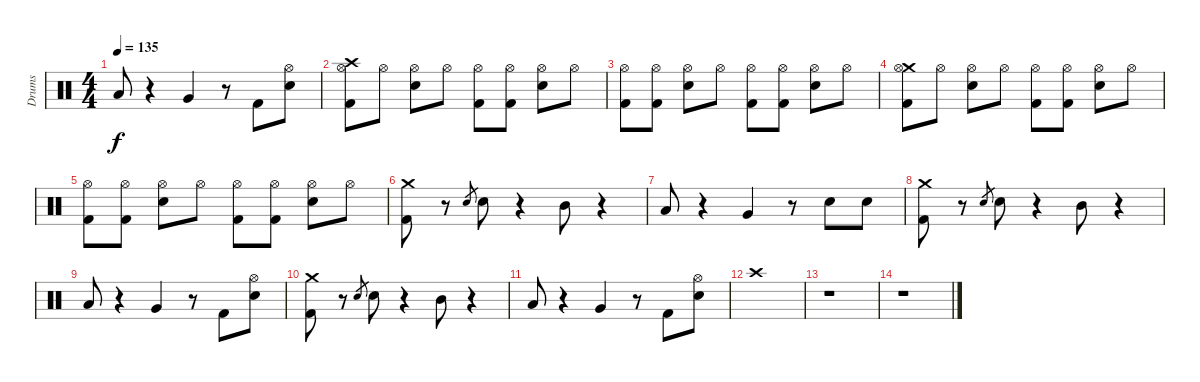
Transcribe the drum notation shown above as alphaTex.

\track ("Drums" "Drums") {instrument percussion}
\staff {score}
\articulation defaults
\ts (4 4)
\tempo 135
\clef neutral
\ks c "Low Tom (hit)".8{dy f}
r.4 "Very Low Tom (hit)".4 r.8 "Kick (hit) 2".8 ("Hi-Hat (open)" "Electric Snare (hit)").8 |
("Crash high (hit)" "Hi-Hat (open)" "Kick (hit) 2").8 "Hi-Hat (open)".8 ("Hi-Hat (open)" "Electric Snare (hit)").8 "Hi-Hat (open)".8 ("Hi-Hat (open)" "Kick (hit) 2").8 ("Hi-Hat (open)" "Kick (hit) 2").8 ("Hi-Hat (open)" "Electric Snare (hit)").8 "Hi-Hat (open)".8 |
("Hi-Hat (open)" "Kick (hit) 2").8 ("Hi-Hat (open)" "Kick (hit) 2").8 ("Hi-Hat (open)" "Electric Snare (hit)").8 "Hi-Hat (open)".8 ("Hi-Hat (open)" "Kick (hit) 2").8 ("Hi-Hat (open)" "Kick (hit) 2").8 ("Hi-Hat (open)" "Electric Snare (hit)").8 "Hi-Hat (open)".8 |
("Crash medium (hit)" "Hi-Hat (open)" "Kick (hit) 2").8 "Hi-Hat (open)".8 ("Hi-Hat (open)" "Electric Snare (hit)").8 "Hi-Hat (open)".8 ("Hi-Hat (open)" "Kick (hit) 2").8 ("Hi-Hat (open)" "Kick (hit) 2").8 ("Hi-Hat (open)" "Electric Snare (hit)").8 "Hi-Hat (open)".8 |
("Hi-Hat (open)" "Kick (hit) 2").8 ("Hi-Hat (open)" "Kick (hit) 2").8 ("Hi-Hat (open)" "Electric Snare (hit)").8 "Hi-Hat (open)".8 ("Hi-Hat (open)" "Kick (hit) 2").8 ("Hi-Hat (open)" "Kick (hit) 2").8 ("Hi-Hat (open)" "Electric Snare (hit)").8 "Hi-Hat (open)".8 |
("Crash medium (hit)" "Kick (hit) 2").8 r.8 "Electric Snare (hit)".8{gr} "Electric Snare (hit)".8 r.4 "Mid Tom (hit)".8 r.4 |
"Low Tom (hit)".8 r.4 "Very Low Tom (hit)".4 r.8 "Electric Snare (hit)".8 "Electric Snare (hit)".8 |
("Crash medium (hit)" "Kick (hit) 2").8 r.8 "Electric Snare (hit)".8{gr} "Electric Snare (hit)".8 r.4 "Mid Tom (hit)".8 r.4 |
"Low Tom (hit)".8 r.4 "Very Low Tom (hit)".4 r.8 "Kick (hit) 2".8 ("Hi-Hat (open)" "Electric Snare (hit)").8 |
("Crash medium (hit)" "Kick (hit) 2").8 r.8 "Electric Snare (hit)".8{gr} "Electric Snare (hit)".8 r.4 "Mid Tom (hit)".8 r.4 |
"Low Tom (hit)".8 r.4 "Very Low Tom (hit)".4 r.8 "Kick (hit) 2".8 ("Hi-Hat (open)" "Electric Snare (hit)").8 |
"Crash high (hit)".1 |
r.1 |
r.1
